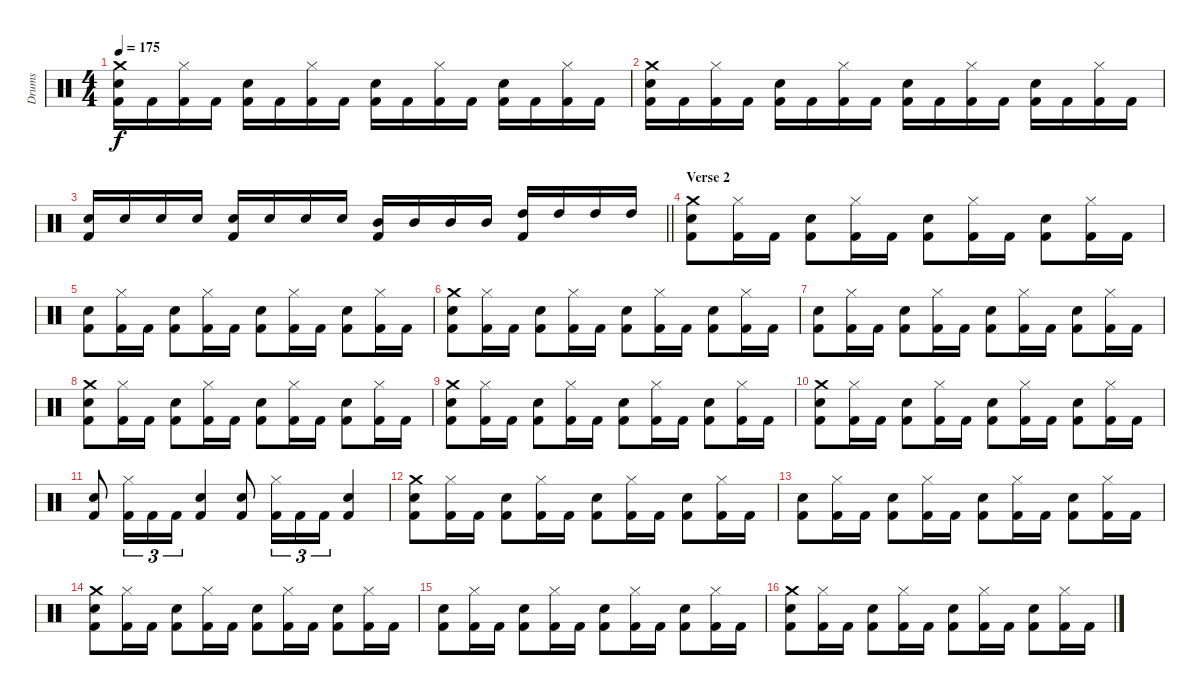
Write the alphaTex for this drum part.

\track ("Drums" "Drums") {instrument percussion}
\staff {score}
\articulation defaults
\ts (4 4)
\tempo 175
\clef neutral
\ks c
("Kick (hit) 2" "Snare (hit) 2" "Crash medium (hit)").16{dy f} "Kick (hit) 2".16 ("Kick (hit) 2" "Hi-Hat (closed)").16 "Kick (hit) 2".16 ("Kick (hit) 2" "Snare (hit) 2").16 "Kick (hit) 2".16 ("Kick (hit) 2" "Hi-Hat (closed)").16 "Kick (hit) 2".16 ("Kick (hit) 2" "Snare (hit) 2").16 "Kick (hit) 2".16 ("Kick (hit) 2" "Hi-Hat (closed)").16 "Kick (hit) 2".16 ("Kick (hit) 2" "Snare (hit) 2").16 "Kick (hit) 2".16 ("Kick (hit) 2" "Hi-Hat (closed)").16 "Kick (hit) 2".16 |
("Kick (hit) 2" "Snare (hit) 2" "Crash medium (hit)").16 "Kick (hit) 2".16 ("Kick (hit) 2" "Hi-Hat (closed)").16 "Kick (hit) 2".16 ("Kick (hit) 2" "Snare (hit) 2").16 "Kick (hit) 2".16 ("Kick (hit) 2" "Hi-Hat (closed)").16 "Kick (hit) 2".16 ("Kick (hit) 2" "Snare (hit) 2").16 "Kick (hit) 2".16 ("Kick (hit) 2" "Hi-Hat (closed)").16 "Kick (hit) 2".16 ("Kick (hit) 2" "Snare (hit) 2").16 "Kick (hit) 2".16 ("Kick (hit) 2" "Hi-Hat (closed)").16 "Kick (hit) 2".16 |
\barLineRight lightlight
("Kick (hit) 2" "Snare (hit) 2").16 "Snare (hit) 2".16 "Snare (hit) 2".16 "Snare (hit) 2".16 ("Kick (hit) 2" "Electric Snare (hit)").16 "Electric Snare (hit)".16 "Electric Snare (hit)".16 "Electric Snare (hit)".16 ("Kick (hit) 2" "Mid Tom (hit)").16 "Mid Tom (hit)".16 "Mid Tom (hit)".16 "Mid Tom (hit)".16 ("Kick (hit) 2" "High Tom (hit)").16 "High Tom (hit)".16 "High Tom (hit)".16 "High Tom (hit)".16 |
\section ("" "Verse 2")
("Kick (hit) 2" "Snare (hit) 2" "Crash medium (hit)").8 ("Kick (hit) 2" "Hi-Hat (closed)").16 "Kick (hit) 2".16 ("Kick (hit) 2" "Snare (hit) 2").8 ("Kick (hit) 2" "Hi-Hat (closed)").16 "Kick (hit) 2".16 ("Kick (hit) 2" "Snare (hit) 2").8 ("Kick (hit) 2" "Hi-Hat (closed)").16 "Kick (hit) 2".16 ("Kick (hit) 2" "Snare (hit) 2").8 ("Kick (hit) 2" "Hi-Hat (closed)").16 "Kick (hit) 2".16 |
("Kick (hit) 2" "Snare (hit) 2").8 ("Kick (hit) 2" "Hi-Hat (closed)").16 "Kick (hit) 2".16 ("Kick (hit) 2" "Snare (hit) 2").8 ("Kick (hit) 2" "Hi-Hat (closed)").16 "Kick (hit) 2".16 ("Kick (hit) 2" "Snare (hit) 2").8 ("Kick (hit) 2" "Hi-Hat (closed)").16 "Kick (hit) 2".16 ("Kick (hit) 2" "Snare (hit) 2").8 ("Kick (hit) 2" "Hi-Hat (closed)").16 "Kick (hit) 2".16 |
("Kick (hit) 2" "Crash medium (hit)" "Snare (hit) 2").8 ("Kick (hit) 2" "Hi-Hat (closed)").16 "Kick (hit) 2".16 ("Kick (hit) 2" "Snare (hit) 2").8 ("Kick (hit) 2" "Hi-Hat (closed)").16 "Kick (hit) 2".16 ("Kick (hit) 2" "Snare (hit) 2").8 ("Kick (hit) 2" "Hi-Hat (closed)").16 "Kick (hit) 2".16 ("Kick (hit) 2" "Snare (hit) 2").8 ("Kick (hit) 2" "Hi-Hat (closed)").16 "Kick (hit) 2".16 |
("Kick (hit) 2" "Snare (hit) 2").8 ("Kick (hit) 2" "Hi-Hat (closed)").16 "Kick (hit) 2".16 ("Kick (hit) 2" "Snare (hit) 2").8 ("Kick (hit) 2" "Hi-Hat (closed)").16 "Kick (hit) 2".16 ("Kick (hit) 2" "Snare (hit) 2").8 ("Kick (hit) 2" "Hi-Hat (closed)").16 "Kick (hit) 2".16 ("Kick (hit) 2" "Snare (hit) 2").8 ("Kick (hit) 2" "Hi-Hat (closed)").16 "Kick (hit) 2".16 |
("Kick (hit) 2" "Crash medium (hit)" "Snare (hit) 2").8 ("Kick (hit) 2" "Hi-Hat (closed)").16 "Kick (hit) 2".16 ("Kick (hit) 2" "Snare (hit) 2").8 ("Kick (hit) 2" "Hi-Hat (closed)").16 "Kick (hit) 2".16 ("Kick (hit) 2" "Snare (hit) 2").8 ("Kick (hit) 2" "Hi-Hat (closed)").16 "Kick (hit) 2".16 ("Kick (hit) 2" "Snare (hit) 2").8 ("Kick (hit) 2" "Hi-Hat (closed)").16 "Kick (hit) 2".16 |
("Kick (hit) 2" "Snare (hit) 2" "Crash medium (hit)").8 ("Kick (hit) 2" "Hi-Hat (closed)").16 "Kick (hit) 2".16 ("Kick (hit) 2" "Snare (hit) 2").8 ("Kick (hit) 2" "Hi-Hat (closed)").16 "Kick (hit) 2".16 ("Kick (hit) 2" "Snare (hit) 2").8 ("Kick (hit) 2" "Hi-Hat (closed)").16 "Kick (hit) 2".16 ("Kick (hit) 2" "Snare (hit) 2").8 ("Kick (hit) 2" "Hi-Hat (closed)").16 "Kick (hit) 2".16 |
("Kick (hit) 2" "Snare (hit) 2" "Crash medium (hit)").8 ("Kick (hit) 2" "Hi-Hat (closed)").16 "Kick (hit) 2".16 ("Kick (hit) 2" "Snare (hit) 2").8 ("Kick (hit) 2" "Hi-Hat (closed)").16 "Kick (hit) 2".16 ("Kick (hit) 2" "Snare (hit) 2").8 ("Kick (hit) 2" "Hi-Hat (closed)").16 "Kick (hit) 2".16 ("Kick (hit) 2" "Snare (hit) 2").8 ("Kick (hit) 2" "Hi-Hat (closed)").16 "Kick (hit) 2".16 |
("Kick (hit) 2" "Snare (hit) 2").8 ("Kick (hit) 2" "Hi-Hat (closed)").16{tu (3 2)} "Kick (hit) 2".16{tu (3 2)} "Kick (hit) 2".16{tu (3 2)} ("Kick (hit) 2" "Snare (hit) 2").4 ("Kick (hit) 2" "Snare (hit) 2").8 ("Kick (hit) 2" "Hi-Hat (closed)").16{tu (3 2)} "Kick (hit) 2".16{tu (3 2)} "Kick (hit) 2".16{tu (3 2)} ("Kick (hit) 2" "Snare (hit) 2").4 |
("Kick (hit) 2" "Snare (hit) 2" "Crash medium (hit)").8 ("Kick (hit) 2" "Hi-Hat (closed)").16 "Kick (hit) 2".16 ("Kick (hit) 2" "Snare (hit) 2").8 ("Kick (hit) 2" "Hi-Hat (closed)").16 "Kick (hit) 2".16 ("Kick (hit) 2" "Snare (hit) 2").8 ("Kick (hit) 2" "Hi-Hat (closed)").16 "Kick (hit) 2".16 ("Kick (hit) 2" "Snare (hit) 2").8 ("Kick (hit) 2" "Hi-Hat (closed)").16 "Kick (hit) 2".16 |
("Kick (hit) 2" "Snare (hit) 2").8 ("Kick (hit) 2" "Hi-Hat (closed)").16 "Kick (hit) 2".16 ("Kick (hit) 2" "Snare (hit) 2").8 ("Kick (hit) 2" "Hi-Hat (closed)").16 "Kick (hit) 2".16 ("Kick (hit) 2" "Snare (hit) 2").8 ("Kick (hit) 2" "Hi-Hat (closed)").16 "Kick (hit) 2".16 ("Kick (hit) 2" "Snare (hit) 2").8 ("Kick (hit) 2" "Hi-Hat (closed)").16 "Kick (hit) 2".16 |
("Kick (hit) 2" "Crash medium (hit)" "Snare (hit) 2").8 ("Kick (hit) 2" "Hi-Hat (closed)").16 "Kick (hit) 2".16 ("Kick (hit) 2" "Snare (hit) 2").8 ("Kick (hit) 2" "Hi-Hat (closed)").16 "Kick (hit) 2".16 ("Kick (hit) 2" "Snare (hit) 2").8 ("Kick (hit) 2" "Hi-Hat (closed)").16 "Kick (hit) 2".16 ("Kick (hit) 2" "Snare (hit) 2").8 ("Kick (hit) 2" "Hi-Hat (closed)").16 "Kick (hit) 2".16 |
("Kick (hit) 2" "Snare (hit) 2").8 ("Kick (hit) 2" "Hi-Hat (closed)").16 "Kick (hit) 2".16 ("Kick (hit) 2" "Snare (hit) 2").8 ("Kick (hit) 2" "Hi-Hat (closed)").16 "Kick (hit) 2".16 ("Kick (hit) 2" "Snare (hit) 2").8 ("Kick (hit) 2" "Hi-Hat (closed)").16 "Kick (hit) 2".16 ("Kick (hit) 2" "Snare (hit) 2").8 ("Kick (hit) 2" "Hi-Hat (closed)").16 "Kick (hit) 2".16 |
("Kick (hit) 2" "Crash medium (hit)" "Snare (hit) 2").8 ("Kick (hit) 2" "Hi-Hat (closed)").16 "Kick (hit) 2".16 ("Kick (hit) 2" "Snare (hit) 2").8 ("Kick (hit) 2" "Hi-Hat (closed)").16 "Kick (hit) 2".16 ("Kick (hit) 2" "Snare (hit) 2").8 ("Kick (hit) 2" "Hi-Hat (closed)").16 "Kick (hit) 2".16 ("Kick (hit) 2" "Snare (hit) 2").8 ("Kick (hit) 2" "Hi-Hat (closed)").16 "Kick (hit) 2".16
